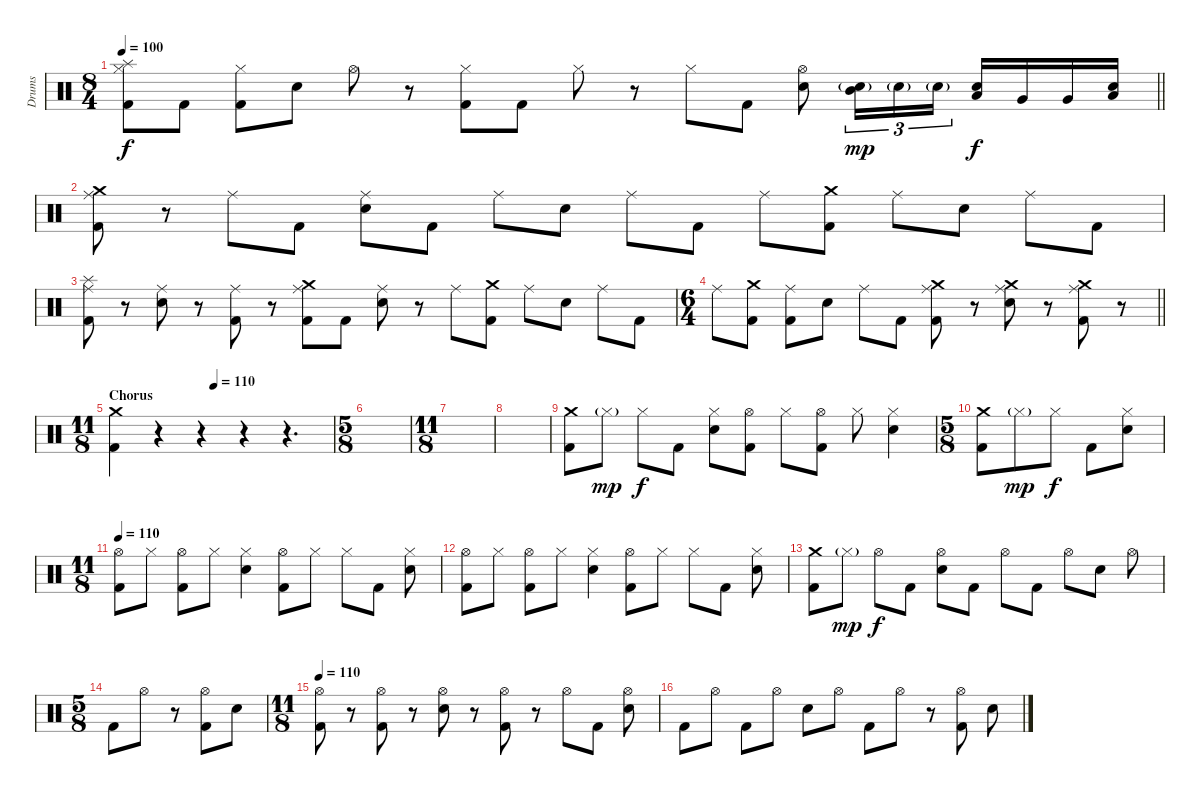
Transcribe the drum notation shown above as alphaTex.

\track ("Drums" "Drums") {instrument percussion}
\staff {score}
\articulation defaults
\ts (8 4)
\tempo 100
\clef neutral
\barLineRight lightlight
\ks c
("Splash (hit)" "Hi-Hat (closed)" "Kick (hit) 2").8{dy f} "Kick (hit) 2".8 ("Hi-Hat (closed)" "Kick (hit) 2").8 "Electric Snare (hit)".8 "Hi-Hat (open)".8 r.8 ("Hi-Hat (closed)" "Kick (hit) 2").8 "Kick (hit) 2".8 "Hi-Hat (closed)".8 r.8 "Hi-Hat (closed)".8 "Kick (hit) 2".8 ("Hi-Hat (open)" "Electric Snare (hit)").8 ("Mid Tom (hit)" "Electric Snare (hit)"{g}).16{tu (3 2) dy mp} "Electric Snare (hit)"{g}.16{tu (3 2)} "Electric Snare (hit)"{g}.16{tu (3 2)} ("Low Tom (hit)" "Electric Snare (hit)").16{dy f} "Very Low Tom (hit)".16 "Very Low Tom (hit)".16 ("Electric Snare (hit)" "Low Floor Tom (hit)").16 |
("Crash medium (hit)" "Ride (middle)" "Kick (hit) 2").8 r.8 "Ride (middle)".8 "Kick (hit) 2".8 ("Ride (middle)" "Electric Snare (hit)").8 "Kick (hit) 2".8 "Ride (middle)".8 "Electric Snare (hit)".8 "Ride (middle)".8 "Kick (hit) 2".8 "Ride (middle)".8 ("Crash medium (hit)" "Kick (hit) 2").8 "Ride (middle)".8 "Electric Snare (hit)".8 "Ride (middle)".8 "Kick (hit) 2".8 |
("Splash (hit)" "Ride (middle)" "Kick (hit) 2").8 r.8 ("Ride (middle)" "Electric Snare (hit)").8 r.8 ("Ride (middle)" "Kick (hit) 2").8 r.8 ("Crash medium (hit)" "Ride (middle)" "Kick (hit) 2").8 "Kick (hit) 2".8 ("Ride (middle)" "Electric Snare (hit)").8 r.8 "Ride (middle)".8 ("Crash medium (hit)" "Kick (hit) 2").8 "Ride (middle)".8 "Electric Snare (hit)".8 "Ride (middle)".8 "Kick (hit) 2".8 |
\ts (6 4)
\barLineRight lightlight "Ride (middle)".8
("Crash medium (hit)" "Kick (hit) 2").8 ("Ride (middle)" "Kick (hit) 2").8 "Electric Snare (hit)".8 "Ride (middle)".8 "Kick (hit) 2".8 ("Crash medium (hit)" "Ride (middle)" "Kick (hit) 2").8 r.8 ("Crash medium (hit)" "Ride (middle)" "Electric Snare (hit)").8 r.8 ("Crash medium (hit)" "Ride (middle)" "Kick (hit) 2").8 r.8 |
\ts (11 8)
\section ("" "Chorus")
\tempo (110 0.45454545454545453)
("Crash medium (hit)" "Kick (hit) 2").4 r.4 r.4 r.4 r.4{d} |
\ts (5 8)
|
\ts (11 8)
|
|
("Crash medium (hit)" "Kick (hit) 2").8 "Hi-Hat (closed)"{g}.8{dy mp} "Hi-Hat (closed)".8{dy f} "Kick (hit) 2".8 ("Hi-Hat (closed)" "Electric Snare (hit)").8 ("Hi-Hat (open)" "Kick (hit) 2").8 "Hi-Hat (closed)".8 ("Hi-Hat (open)" "Kick (hit) 2").8 "Hi-Hat (closed)".8 ("Hi-Hat (closed)" "Electric Snare (hit)").4 |
\ts (5 8)
("Crash medium (hit)" "Kick (hit) 2").8 "Hi-Hat (closed)"{g}.8{dy mp} "Hi-Hat (closed)".8{dy f} "Kick (hit) 2".8 ("Hi-Hat (closed)" "Electric Snare (hit)").8 |
\ts (11 8)
\tempo 110
("Hi-Hat (open)" "Kick (hit) 2").8 "Hi-Hat (closed)".8 ("Hi-Hat (open)" "Kick (hit) 2").8 "Hi-Hat (closed)".8 ("Hi-Hat (closed)" "Electric Snare (hit)").4 ("Hi-Hat (open)" "Kick (hit) 2").8 "Hi-Hat (closed)".8 "Hi-Hat (closed)".8 "Kick (hit) 2".8 ("Hi-Hat (closed)" "Electric Snare (hit)").8 |
("Hi-Hat (open)" "Kick (hit) 2").8 "Hi-Hat (closed)".8 ("Hi-Hat (open)" "Kick (hit) 2").8 "Hi-Hat (closed)".8 ("Hi-Hat (closed)" "Electric Snare (hit)").4 ("Hi-Hat (open)" "Kick (hit) 2").8 "Hi-Hat (closed)".8 "Hi-Hat (closed)".8 "Kick (hit) 2".8 ("Hi-Hat (closed)" "Electric Snare (hit)").8 |
("Crash medium (hit)" "Kick (hit) 2").8 "Hi-Hat (closed)"{g}.8{dy mp} "Hi-Hat (open)".8{dy f} "Kick (hit) 2".8 ("Hi-Hat (open)" "Electric Snare (hit)").8 "Kick (hit) 2".8 "Hi-Hat (open)".8 "Kick (hit) 2".8 "Hi-Hat (open)".8 "Electric Snare (hit)".8 "Hi-Hat (open)".8 |
\ts (5 8)
"Kick (hit) 2".8 "Hi-Hat (open)".8 r.8 ("Hi-Hat (open)" "Kick (hit) 2").8 "Electric Snare (hit)".8 |
\ts (11 8)
\tempo 110
("Hi-Hat (open)" "Kick (hit) 2").8 r.8 ("Hi-Hat (open)" "Kick (hit) 2").8 r.8 ("Hi-Hat (open)" "Electric Snare (hit)").8 r.8 ("Hi-Hat (open)" "Kick (hit) 2").8 r.8 "Hi-Hat (open)".8 "Kick (hit) 2".8 ("Hi-Hat (open)" "Electric Snare (hit)").8 |
"Kick (hit) 2".8 "Hi-Hat (open)".8 "Kick (hit) 2".8 "Hi-Hat (open)".8 "Electric Snare (hit)".8 "Hi-Hat (open)".8 "Kick (hit) 2".8 "Hi-Hat (open)".8 r.8 ("Hi-Hat (open)" "Kick (hit) 2").8 "Electric Snare (hit)".8
